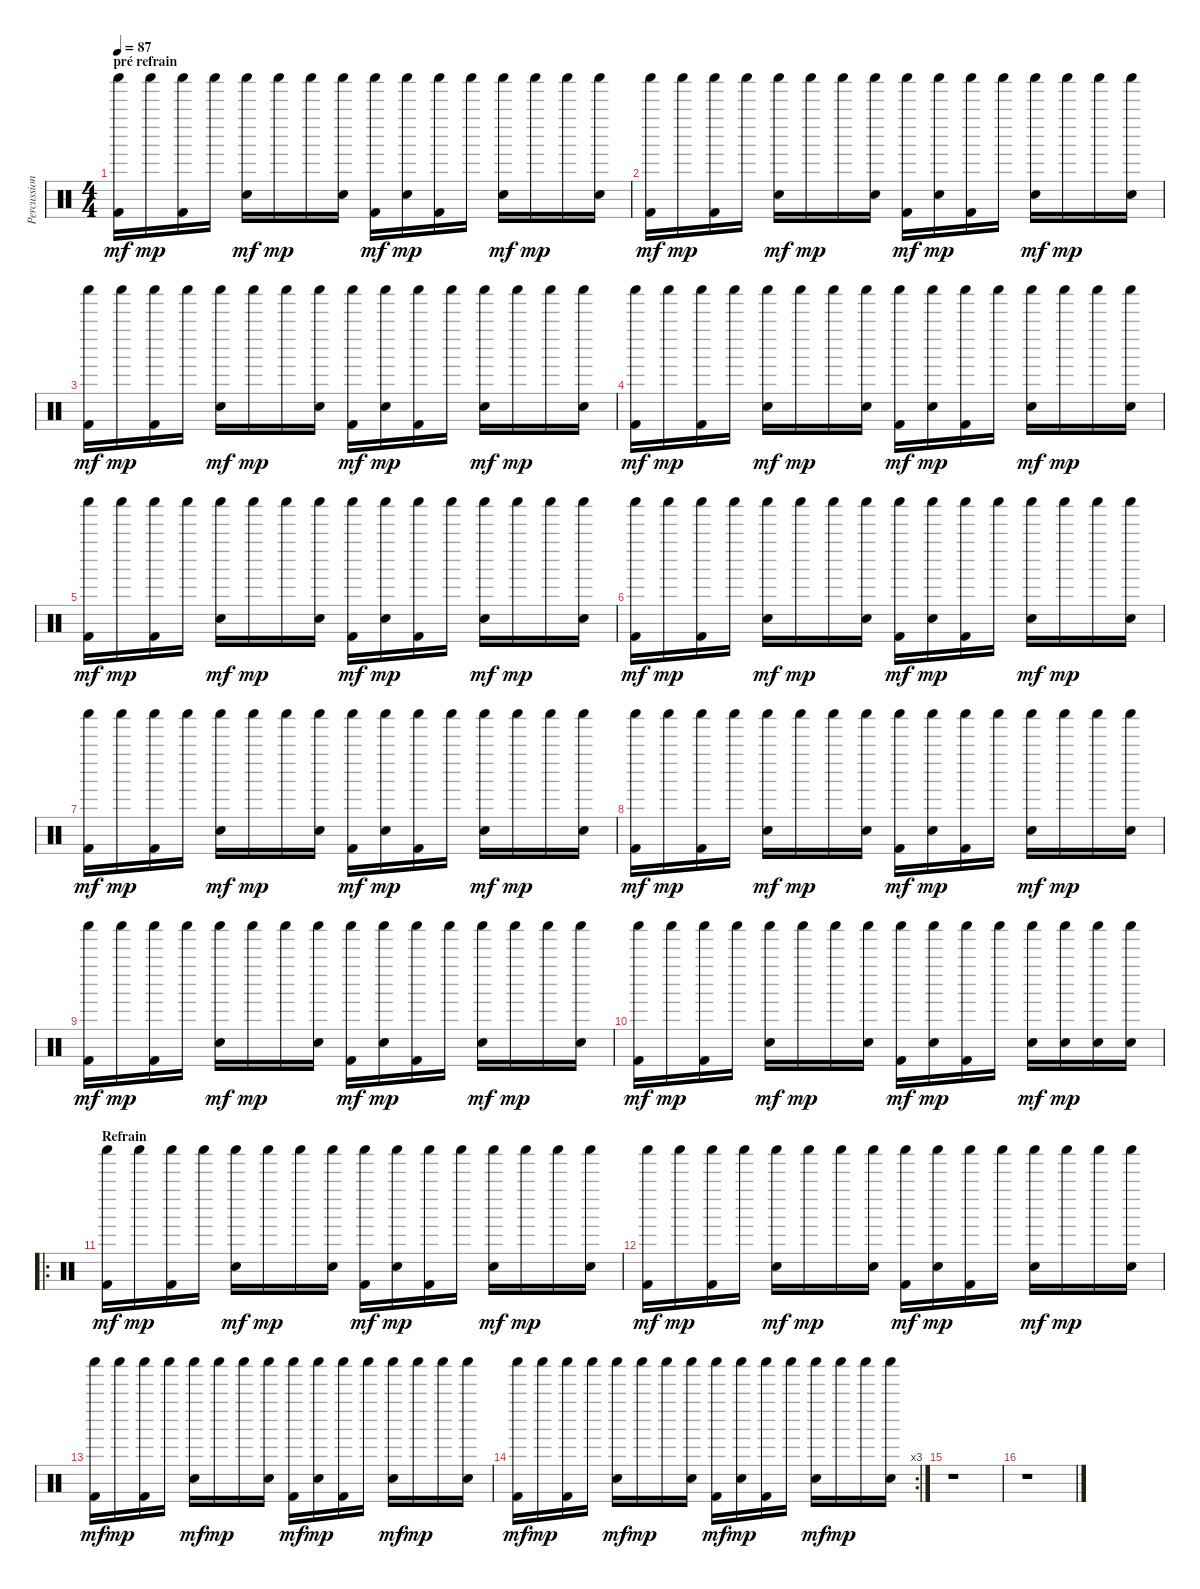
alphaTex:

\track ("Percussions" "Percussion") {instrument percussion}
\staff {score}
\articulation defaults
\ts (4 4)
\section ("" "pré refrain")
\tempo 87
\clef neutral
\ks c
("Shaker (hit)" "Kick (hit) 2").16{dy mf} "Shaker (hit)".16{dy mp} ("Shaker (hit)" "Kick (hit) 2").16 "Shaker (hit)".16 ("Shaker (hit)" "Electric Snare (hit)").16{dy mf} "Shaker (hit)".16{dy mp} "Shaker (hit)".16 ("Shaker (hit)" "Electric Snare (hit)").16 ("Shaker (hit)" "Kick (hit) 2").16{dy mf} ("Shaker (hit)" "Electric Snare (hit)").16{dy mp} ("Shaker (hit)" "Kick (hit) 2").16 "Shaker (hit)".16 ("Shaker (hit)" "Electric Snare (hit)").16{dy mf} "Shaker (hit)".16{dy mp} "Shaker (hit)".16 ("Shaker (hit)" "Electric Snare (hit)").16 |
("Shaker (hit)" "Kick (hit) 2").16{dy mf} "Shaker (hit)".16{dy mp} ("Shaker (hit)" "Kick (hit) 2").16 "Shaker (hit)".16 ("Shaker (hit)" "Electric Snare (hit)").16{dy mf} "Shaker (hit)".16{dy mp} "Shaker (hit)".16 ("Shaker (hit)" "Electric Snare (hit)").16 ("Shaker (hit)" "Kick (hit) 2").16{dy mf} ("Shaker (hit)" "Electric Snare (hit)").16{dy mp} ("Shaker (hit)" "Kick (hit) 2").16 "Shaker (hit)".16 ("Shaker (hit)" "Electric Snare (hit)").16{dy mf} "Shaker (hit)".16{dy mp} "Shaker (hit)".16 ("Shaker (hit)" "Electric Snare (hit)").16 |
("Shaker (hit)" "Kick (hit) 2").16{dy mf} "Shaker (hit)".16{dy mp} ("Shaker (hit)" "Kick (hit) 2").16 "Shaker (hit)".16 ("Shaker (hit)" "Electric Snare (hit)").16{dy mf} "Shaker (hit)".16{dy mp} "Shaker (hit)".16 ("Shaker (hit)" "Electric Snare (hit)").16 ("Shaker (hit)" "Kick (hit) 2").16{dy mf} ("Shaker (hit)" "Electric Snare (hit)").16{dy mp} ("Shaker (hit)" "Kick (hit) 2").16 "Shaker (hit)".16 ("Shaker (hit)" "Electric Snare (hit)").16{dy mf} "Shaker (hit)".16{dy mp} "Shaker (hit)".16 ("Shaker (hit)" "Electric Snare (hit)").16 |
("Shaker (hit)" "Kick (hit) 2").16{dy mf} "Shaker (hit)".16{dy mp} ("Shaker (hit)" "Kick (hit) 2").16 "Shaker (hit)".16 ("Shaker (hit)" "Electric Snare (hit)").16{dy mf} "Shaker (hit)".16{dy mp} "Shaker (hit)".16 ("Shaker (hit)" "Electric Snare (hit)").16 ("Shaker (hit)" "Kick (hit) 2").16{dy mf} ("Shaker (hit)" "Electric Snare (hit)").16{dy mp} ("Shaker (hit)" "Kick (hit) 2").16 "Shaker (hit)".16 ("Shaker (hit)" "Electric Snare (hit)").16{dy mf} "Shaker (hit)".16{dy mp} "Shaker (hit)".16 ("Shaker (hit)" "Electric Snare (hit)").16 |
("Shaker (hit)" "Kick (hit) 2").16{dy mf} "Shaker (hit)".16{dy mp} ("Shaker (hit)" "Kick (hit) 2").16 "Shaker (hit)".16 ("Shaker (hit)" "Electric Snare (hit)").16{dy mf} "Shaker (hit)".16{dy mp} "Shaker (hit)".16 ("Shaker (hit)" "Electric Snare (hit)").16 ("Shaker (hit)" "Kick (hit) 2").16{dy mf} ("Shaker (hit)" "Electric Snare (hit)").16{dy mp} ("Shaker (hit)" "Kick (hit) 2").16 "Shaker (hit)".16 ("Shaker (hit)" "Electric Snare (hit)").16{dy mf} "Shaker (hit)".16{dy mp} "Shaker (hit)".16 ("Shaker (hit)" "Electric Snare (hit)").16 |
("Shaker (hit)" "Kick (hit) 2").16{dy mf} "Shaker (hit)".16{dy mp} ("Shaker (hit)" "Kick (hit) 2").16 "Shaker (hit)".16 ("Shaker (hit)" "Electric Snare (hit)").16{dy mf} "Shaker (hit)".16{dy mp} "Shaker (hit)".16 ("Shaker (hit)" "Electric Snare (hit)").16 ("Shaker (hit)" "Kick (hit) 2").16{dy mf} ("Shaker (hit)" "Electric Snare (hit)").16{dy mp} ("Shaker (hit)" "Kick (hit) 2").16 "Shaker (hit)".16 ("Shaker (hit)" "Electric Snare (hit)").16{dy mf} "Shaker (hit)".16{dy mp} "Shaker (hit)".16 ("Shaker (hit)" "Electric Snare (hit)").16 |
("Shaker (hit)" "Kick (hit) 2").16{dy mf} "Shaker (hit)".16{dy mp} ("Shaker (hit)" "Kick (hit) 2").16 "Shaker (hit)".16 ("Shaker (hit)" "Electric Snare (hit)").16{dy mf} "Shaker (hit)".16{dy mp} "Shaker (hit)".16 ("Shaker (hit)" "Electric Snare (hit)").16 ("Shaker (hit)" "Kick (hit) 2").16{dy mf} ("Shaker (hit)" "Electric Snare (hit)").16{dy mp} ("Shaker (hit)" "Kick (hit) 2").16 "Shaker (hit)".16 ("Shaker (hit)" "Electric Snare (hit)").16{dy mf} "Shaker (hit)".16{dy mp} "Shaker (hit)".16 ("Shaker (hit)" "Electric Snare (hit)").16 |
("Shaker (hit)" "Kick (hit) 2").16{dy mf} "Shaker (hit)".16{dy mp} ("Shaker (hit)" "Kick (hit) 2").16 "Shaker (hit)".16 ("Shaker (hit)" "Electric Snare (hit)").16{dy mf} "Shaker (hit)".16{dy mp} "Shaker (hit)".16 ("Shaker (hit)" "Electric Snare (hit)").16 ("Shaker (hit)" "Kick (hit) 2").16{dy mf} ("Shaker (hit)" "Electric Snare (hit)").16{dy mp} ("Shaker (hit)" "Kick (hit) 2").16 "Shaker (hit)".16 ("Shaker (hit)" "Electric Snare (hit)").16{dy mf} "Shaker (hit)".16{dy mp} "Shaker (hit)".16 ("Shaker (hit)" "Electric Snare (hit)").16 |
("Shaker (hit)" "Kick (hit) 2").16{dy mf} "Shaker (hit)".16{dy mp} ("Shaker (hit)" "Kick (hit) 2").16 "Shaker (hit)".16 ("Shaker (hit)" "Electric Snare (hit)").16{dy mf} "Shaker (hit)".16{dy mp} "Shaker (hit)".16 ("Shaker (hit)" "Electric Snare (hit)").16 ("Shaker (hit)" "Kick (hit) 2").16{dy mf} ("Shaker (hit)" "Electric Snare (hit)").16{dy mp} ("Shaker (hit)" "Kick (hit) 2").16 "Shaker (hit)".16 ("Shaker (hit)" "Electric Snare (hit)").16{dy mf} "Shaker (hit)".16{dy mp} "Shaker (hit)".16 ("Shaker (hit)" "Electric Snare (hit)").16 |
("Shaker (hit)" "Kick (hit) 2").16{dy mf} "Shaker (hit)".16{dy mp} ("Shaker (hit)" "Kick (hit) 2").16 "Shaker (hit)".16 ("Shaker (hit)" "Electric Snare (hit)").16{dy mf} "Shaker (hit)".16{dy mp} "Shaker (hit)".16 ("Shaker (hit)" "Electric Snare (hit)").16 ("Shaker (hit)" "Kick (hit) 2").16{dy mf} ("Shaker (hit)" "Electric Snare (hit)").16{dy mp} ("Shaker (hit)" "Kick (hit) 2").16 "Shaker (hit)".16 ("Shaker (hit)" "Electric Snare (hit)").16{dy mf} ("Shaker (hit)" "Electric Snare (hit)").16{dy mp} ("Shaker (hit)" "Electric Snare (hit)").16 ("Shaker (hit)" "Electric Snare (hit)").16 |
\ro
\section ("" "Refrain")
("Shaker (hit)" "Kick (hit) 2").16{dy mf} "Shaker (hit)".16{dy mp} ("Shaker (hit)" "Kick (hit) 2").16 "Shaker (hit)".16 ("Shaker (hit)" "Electric Snare (hit)").16{dy mf} "Shaker (hit)".16{dy mp} "Shaker (hit)".16 ("Shaker (hit)" "Electric Snare (hit)").16 ("Shaker (hit)" "Kick (hit) 2").16{dy mf} ("Shaker (hit)" "Electric Snare (hit)").16{dy mp} ("Shaker (hit)" "Kick (hit) 2").16 "Shaker (hit)".16 ("Shaker (hit)" "Electric Snare (hit)").16{dy mf} "Shaker (hit)".16{dy mp} "Shaker (hit)".16 ("Shaker (hit)" "Electric Snare (hit)").16 |
("Shaker (hit)" "Kick (hit) 2").16{dy mf} "Shaker (hit)".16{dy mp} ("Shaker (hit)" "Kick (hit) 2").16 "Shaker (hit)".16 ("Shaker (hit)" "Electric Snare (hit)").16{dy mf} "Shaker (hit)".16{dy mp} "Shaker (hit)".16 ("Shaker (hit)" "Electric Snare (hit)").16 ("Shaker (hit)" "Kick (hit) 2").16{dy mf} ("Shaker (hit)" "Electric Snare (hit)").16{dy mp} ("Shaker (hit)" "Kick (hit) 2").16 "Shaker (hit)".16 ("Shaker (hit)" "Electric Snare (hit)").16{dy mf} "Shaker (hit)".16{dy mp} "Shaker (hit)".16 ("Shaker (hit)" "Electric Snare (hit)").16 |
("Shaker (hit)" "Kick (hit) 2").16{dy mf} "Shaker (hit)".16{dy mp} ("Shaker (hit)" "Kick (hit) 2").16 "Shaker (hit)".16 ("Shaker (hit)" "Electric Snare (hit)").16{dy mf} "Shaker (hit)".16{dy mp} "Shaker (hit)".16 ("Shaker (hit)" "Electric Snare (hit)").16 ("Shaker (hit)" "Kick (hit) 2").16{dy mf} ("Shaker (hit)" "Electric Snare (hit)").16{dy mp} ("Shaker (hit)" "Kick (hit) 2").16 "Shaker (hit)".16 ("Shaker (hit)" "Electric Snare (hit)").16{dy mf} "Shaker (hit)".16{dy mp} "Shaker (hit)".16 ("Shaker (hit)" "Electric Snare (hit)").16 |
\rc 3
("Shaker (hit)" "Kick (hit) 2").16{dy mf} "Shaker (hit)".16{dy mp} ("Shaker (hit)" "Kick (hit) 2").16 "Shaker (hit)".16 ("Shaker (hit)" "Electric Snare (hit)").16{dy mf} "Shaker (hit)".16{dy mp} "Shaker (hit)".16 ("Shaker (hit)" "Electric Snare (hit)").16 ("Shaker (hit)" "Kick (hit) 2").16{dy mf} ("Shaker (hit)" "Electric Snare (hit)").16{dy mp} ("Shaker (hit)" "Kick (hit) 2").16 "Shaker (hit)".16 ("Shaker (hit)" "Electric Snare (hit)").16{dy mf} "Shaker (hit)".16{dy mp} "Shaker (hit)".16 ("Shaker (hit)" "Electric Snare (hit)").16 |
r.1 |
r.1
